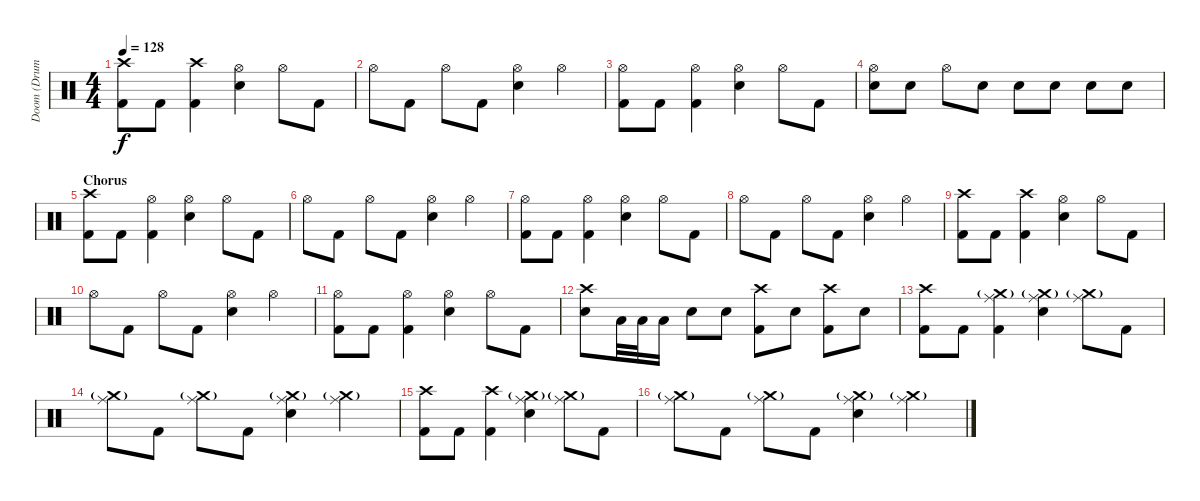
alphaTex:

\track ("Doom (Drums)" "Doom (Drum") {instrument percussion}
\staff {score}
\articulation defaults
\ts (4 4)
\tempo 128
\clef neutral
\ks c
("Crash high (hit)" "Kick (hit) 2").8{dy f} "Kick (hit) 2".8 ("Crash high (hit)" "Kick (hit) 2").4 ("Hi-Hat (open)" "Electric Snare (hit)").4 "Hi-Hat (open)".8 "Kick (hit) 2".8 |
"Hi-Hat (open)".8 "Kick (hit) 2".8 "Hi-Hat (open)".8 "Kick (hit) 2".8 ("Hi-Hat (open)" "Electric Snare (hit)").4 "Hi-Hat (open)".4 |
("Hi-Hat (open)" "Kick (hit) 2").8 "Kick (hit) 2".8 ("Hi-Hat (open)" "Kick (hit) 2").4 ("Hi-Hat (open)" "Electric Snare (hit)").4 "Hi-Hat (open)".8 "Kick (hit) 2".8 |
("Hi-Hat (open)" "Electric Snare (hit)").8 "Electric Snare (hit)".8 "Hi-Hat (open)".8 "Electric Snare (hit)".8 "Electric Snare (hit)".8 "Electric Snare (hit)".8 "Electric Snare (hit)".8 "Electric Snare (hit)".8 |
\section ("" "Chorus")
("Crash high (hit)" "Kick (hit) 2").8 "Kick (hit) 2".8 ("Hi-Hat (open)" "Kick (hit) 2").4 ("Hi-Hat (open)" "Electric Snare (hit)").4 "Hi-Hat (open)".8 "Kick (hit) 2".8 |
"Hi-Hat (open)".8 "Kick (hit) 2".8 "Hi-Hat (open)".8 "Kick (hit) 2".8 ("Hi-Hat (open)" "Electric Snare (hit)").4 "Hi-Hat (open)".4 |
("Hi-Hat (open)" "Kick (hit) 2").8 "Kick (hit) 2".8 ("Hi-Hat (open)" "Kick (hit) 2").4 ("Hi-Hat (open)" "Electric Snare (hit)").4 "Hi-Hat (open)".8 "Kick (hit) 2".8 |
"Hi-Hat (open)".8 "Kick (hit) 2".8 "Hi-Hat (open)".8 "Kick (hit) 2".8 ("Hi-Hat (open)" "Electric Snare (hit)").4 "Hi-Hat (open)".4 |
("Crash high (hit)" "Kick (hit) 2").8 "Kick (hit) 2".8 ("Crash high (hit)" "Kick (hit) 2").4 ("Hi-Hat (open)" "Electric Snare (hit)").4 "Hi-Hat (open)".8 "Kick (hit) 2".8 |
"Hi-Hat (open)".8 "Kick (hit) 2".8 "Hi-Hat (open)".8 "Kick (hit) 2".8 ("Hi-Hat (open)" "Electric Snare (hit)").4 "Hi-Hat (open)".4 |
("Hi-Hat (open)" "Kick (hit) 2").8 "Kick (hit) 2".8 ("Hi-Hat (open)" "Kick (hit) 2").4 ("Hi-Hat (open)" "Electric Snare (hit)").4 "Hi-Hat (open)".8 "Kick (hit) 2".8 |
("Crash high (hit)" "Electric Snare (hit)").8 "Low Floor Tom (hit)".32 "Low Floor Tom (hit)".32 "Low Floor Tom (hit)".16 "Electric Snare (hit)".8 "Electric Snare (hit)".8 ("Crash high (hit)" "Kick (hit) 2").8 "Electric Snare (hit)".8 ("Crash high (hit)" "Kick (hit) 2").8 "Electric Snare (hit)".8 |
("Crash high (hit)" "Kick (hit) 2").8 "Kick (hit) 2".8 ("Crash medium (hit)"{g} "Ride (middle)" "Kick (hit) 2").4 ("Crash medium (hit)"{g} "Ride (middle)" "Electric Snare (hit)").4 ("Crash medium (hit)"{g} "Ride (middle)").8 "Kick (hit) 2".8 |
("Crash medium (hit)"{g} "Ride (middle)").8 "Kick (hit) 2".8 ("Crash medium (hit)"{g} "Ride (middle)").8 "Kick (hit) 2".8 ("Crash medium (hit)"{g} "Ride (middle)" "Electric Snare (hit)").4 ("Crash medium (hit)"{g} "Ride (middle)").4 |
("Crash high (hit)" "Kick (hit) 2").8 "Kick (hit) 2".8 ("Crash high (hit)" "Kick (hit) 2").4 ("Crash medium (hit)"{g} "Ride (middle)" "Electric Snare (hit)").4 ("Crash medium (hit)"{g} "Ride (middle)").8 "Kick (hit) 2".8 |
("Crash medium (hit)"{g} "Ride (middle)").8 "Kick (hit) 2".8 ("Crash medium (hit)"{g} "Ride (middle)").8 "Kick (hit) 2".8 ("Crash medium (hit)"{g} "Ride (middle)" "Electric Snare (hit)").4 ("Crash medium (hit)"{g} "Ride (middle)").4
